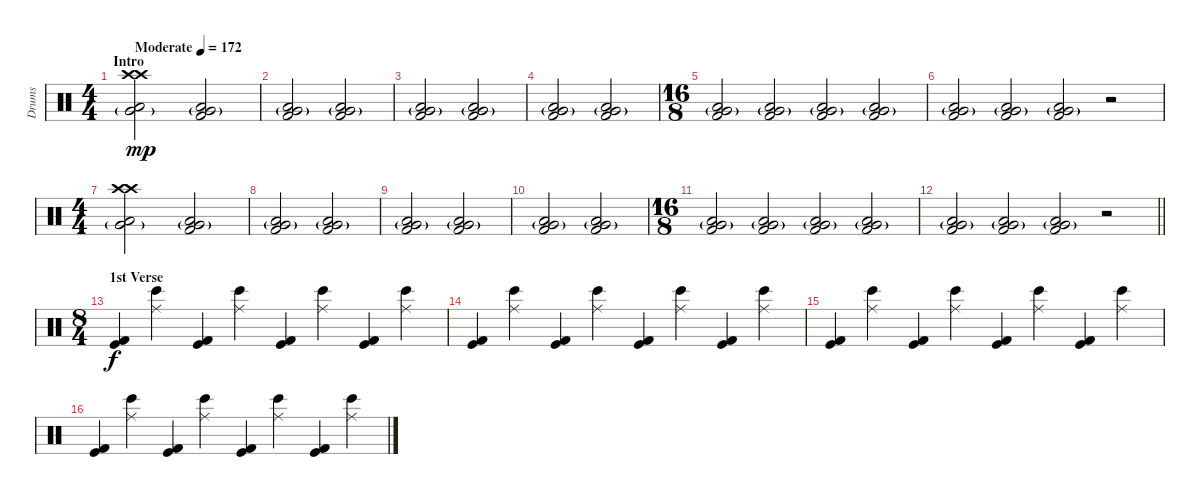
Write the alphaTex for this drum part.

\track ("Drums" "Drums") {instrument percussion}
\staff {score}
\articulation defaults
\ts (4 4)
\section ("" "Intro")
\tempo (172 "Moderate")
\clef neutral
\ks c
("Crash high (hit)" "Low Floor Tom (hit)" "Very Low Tom (hit)"{g} "Crash high (hit)").2{dy mp} ("Kick (hit) 2" "Low Floor Tom (hit)" "Very Low Tom (hit)"{g}).2 |
("Kick (hit) 2" "Low Floor Tom (hit)" "Very Low Tom (hit)"{g}).2 ("Kick (hit) 2" "Low Floor Tom (hit)" "Very Low Tom (hit)"{g}).2 |
("Kick (hit) 2" "Low Floor Tom (hit)" "Very Low Tom (hit)"{g}).2 ("Kick (hit) 2" "Low Floor Tom (hit)" "Very Low Tom (hit)"{g}).2 |
("Kick (hit) 2" "Low Floor Tom (hit)" "Very Low Tom (hit)"{g}).2 ("Kick (hit) 2" "Low Floor Tom (hit)" "Very Low Tom (hit)"{g}).2 |
\ts (16 8)
("Kick (hit) 2" "Low Floor Tom (hit)" "Very Low Tom (hit)"{g}).2 ("Kick (hit) 2" "Low Floor Tom (hit)" "Very Low Tom (hit)"{g}).2 ("Kick (hit) 2" "Low Floor Tom (hit)" "Very Low Tom (hit)"{g}).2 ("Kick (hit) 2" "Low Floor Tom (hit)" "Very Low Tom (hit)"{g}).2 |
("Kick (hit) 2" "Low Floor Tom (hit)" "Very Low Tom (hit)"{g}).2 ("Kick (hit) 2" "Low Floor Tom (hit)" "Very Low Tom (hit)"{g}).2 ("Kick (hit) 2" "Low Floor Tom (hit)" "Very Low Tom (hit)"{g}).2 r.2 |
\ts (4 4)
("Crash high (hit)" "Low Floor Tom (hit)" "Very Low Tom (hit)"{g} "Crash high (hit)").2 ("Kick (hit) 2" "Low Floor Tom (hit)" "Very Low Tom (hit)"{g}).2 |
("Kick (hit) 2" "Low Floor Tom (hit)" "Very Low Tom (hit)"{g}).2 ("Kick (hit) 2" "Low Floor Tom (hit)" "Very Low Tom (hit)"{g}).2 |
("Kick (hit) 2" "Low Floor Tom (hit)" "Very Low Tom (hit)"{g}).2 ("Kick (hit) 2" "Low Floor Tom (hit)" "Very Low Tom (hit)"{g}).2 |
("Kick (hit) 2" "Low Floor Tom (hit)" "Very Low Tom (hit)"{g}).2 ("Kick (hit) 2" "Low Floor Tom (hit)" "Very Low Tom (hit)"{g}).2 |
\ts (16 8)
("Kick (hit) 2" "Low Floor Tom (hit)" "Very Low Tom (hit)"{g}).2 ("Kick (hit) 2" "Low Floor Tom (hit)" "Very Low Tom (hit)"{g}).2 ("Kick (hit) 2" "Low Floor Tom (hit)" "Very Low Tom (hit)"{g}).2 ("Kick (hit) 2" "Low Floor Tom (hit)" "Very Low Tom (hit)"{g}).2 |
\barLineRight lightlight
("Kick (hit) 2" "Low Floor Tom (hit)" "Very Low Tom (hit)"{g}).2 ("Kick (hit) 2" "Low Floor Tom (hit)" "Very Low Tom (hit)"{g}).2 ("Kick (hit) 2" "Low Floor Tom (hit)" "Very Low Tom (hit)"{g}).2 r.2 |
\ts (8 4)
\section ("" "1st Verse")
("Kick (hit) 2" "Kick (hit)").4{dy f} ("Ride (middle)" "Bongo High (hit)").4 ("Kick (hit) 2" "Kick (hit)").4 ("Ride (middle)" "Bongo High (hit)").4 ("Kick (hit) 2" "Kick (hit)").4 ("Ride (middle)" "Bongo High (hit)").4 ("Kick (hit) 2" "Kick (hit)").4 ("Ride (middle)" "Bongo High (hit)").4 |
("Kick (hit) 2" "Kick (hit)").4 ("Ride (middle)" "Bongo High (hit)").4 ("Kick (hit) 2" "Kick (hit)").4 ("Ride (middle)" "Bongo High (hit)").4 ("Kick (hit) 2" "Kick (hit)").4 ("Ride (middle)" "Bongo High (hit)").4 ("Kick (hit) 2" "Kick (hit)").4 ("Ride (middle)" "Bongo High (hit)").4 |
("Kick (hit) 2" "Kick (hit)").4 ("Ride (middle)" "Bongo High (hit)").4 ("Kick (hit) 2" "Kick (hit)").4 ("Ride (middle)" "Bongo High (hit)").4 ("Kick (hit) 2" "Kick (hit)").4 ("Ride (middle)" "Bongo High (hit)").4 ("Kick (hit) 2" "Kick (hit)").4 ("Ride (middle)" "Bongo High (hit)").4 |
("Kick (hit) 2" "Kick (hit)").4 ("Ride (middle)" "Bongo High (hit)").4 ("Kick (hit) 2" "Kick (hit)").4 ("Ride (middle)" "Bongo High (hit)").4 ("Kick (hit) 2" "Kick (hit)").4 ("Ride (middle)" "Bongo High (hit)").4 ("Kick (hit) 2" "Kick (hit)").4 ("Ride (middle)" "Bongo High (hit)").4
